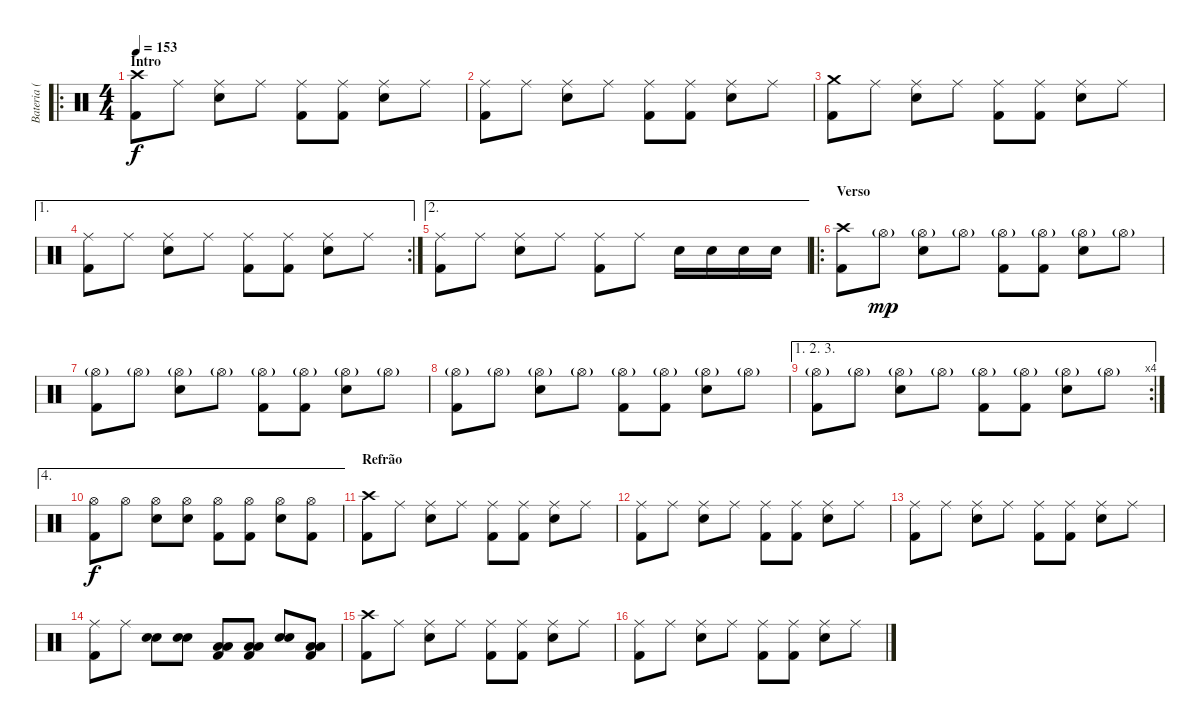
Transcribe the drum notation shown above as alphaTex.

\track ("Bateria ( Marky Ramone)" "Bateria ( ") {instrument percussion}
\staff {score}
\articulation defaults
\ro
\ts (4 4)
\section ("" "Intro")
\tempo 153
\clef neutral
\ks c
("Crash high (hit)" "Kick (hit) 2").8{dy f} "Ride (middle)".8 ("Ride (middle)" "Electric Snare (hit)").8 "Ride (middle)".8 ("Ride (middle)" "Kick (hit) 2").8 ("Ride (middle)" "Kick (hit) 2").8 ("Ride (middle)" "Electric Snare (hit)").8 "Ride (middle)".8 |
("Ride (middle)" "Kick (hit) 2").8 "Ride (middle)".8 ("Ride (middle)" "Electric Snare (hit)").8 "Ride (middle)".8 ("Ride (middle)" "Kick (hit) 2").8 ("Ride (middle)" "Kick (hit) 2").8 ("Ride (middle)" "Electric Snare (hit)").8 "Ride (middle)".8 |
("Crash medium (hit)" "Kick (hit) 2").8 "Ride (middle)".8 ("Ride (middle)" "Electric Snare (hit)").8 "Ride (middle)".8 ("Ride (middle)" "Kick (hit) 2").8 ("Ride (middle)" "Kick (hit) 2").8 ("Ride (middle)" "Electric Snare (hit)").8 "Ride (middle)".8 |
\ae 1
\rc 2
("Ride (middle)" "Kick (hit) 2").8 "Ride (middle)".8 ("Ride (middle)" "Electric Snare (hit)").8 "Ride (middle)".8 ("Ride (middle)" "Kick (hit) 2").8 ("Ride (middle)" "Kick (hit) 2").8 ("Ride (middle)" "Electric Snare (hit)").8 "Ride (middle)".8 |
\ae 2
("Ride (middle)" "Kick (hit) 2").8 "Ride (middle)".8 ("Ride (middle)" "Electric Snare (hit)").8 "Ride (middle)".8 ("Ride (middle)" "Kick (hit) 2").8 "Ride (middle)".8 "Electric Snare (hit)".16 "Electric Snare (hit)".16 "Electric Snare (hit)".16 "Electric Snare (hit)".16 |
\ro
\section ("" "Verso")
("Crash high (hit)" "Kick (hit) 2").8 "Hi-Hat (open)"{g}.8{dy mp} ("Hi-Hat (open)"{g} "Electric Snare (hit)").8 "Hi-Hat (open)"{g}.8 ("Hi-Hat (open)"{g} "Kick (hit) 2").8 ("Hi-Hat (open)"{g} "Kick (hit) 2").8 ("Hi-Hat (open)"{g} "Electric Snare (hit)").8 "Hi-Hat (open)"{g}.8 |
("Hi-Hat (open)"{g} "Kick (hit) 2").8 "Hi-Hat (open)"{g}.8 ("Hi-Hat (open)"{g} "Electric Snare (hit)").8 "Hi-Hat (open)"{g}.8 ("Hi-Hat (open)"{g} "Kick (hit) 2").8 ("Hi-Hat (open)"{g} "Kick (hit) 2").8 ("Hi-Hat (open)"{g} "Electric Snare (hit)").8 "Hi-Hat (open)"{g}.8 |
("Hi-Hat (open)"{g} "Kick (hit) 2").8 "Hi-Hat (open)"{g}.8 ("Hi-Hat (open)"{g} "Electric Snare (hit)").8 "Hi-Hat (open)"{g}.8 ("Hi-Hat (open)"{g} "Kick (hit) 2").8 ("Hi-Hat (open)"{g} "Kick (hit) 2").8 ("Hi-Hat (open)"{g} "Electric Snare (hit)").8 "Hi-Hat (open)"{g}.8 |
\ae (1 2 3)
\rc 4
("Hi-Hat (open)"{g} "Kick (hit) 2").8 "Hi-Hat (open)"{g}.8 ("Hi-Hat (open)"{g} "Electric Snare (hit)").8 "Hi-Hat (open)"{g}.8 ("Hi-Hat (open)"{g} "Kick (hit) 2").8 ("Hi-Hat (open)"{g} "Kick (hit) 2").8 ("Hi-Hat (open)"{g} "Electric Snare (hit)").8 "Hi-Hat (open)"{g}.8 |
\ae 4
("Hi-Hat (open)" "Kick (hit) 2").8{dy f} "Hi-Hat (open)".8 ("Hi-Hat (open)" "Electric Snare (hit)").8 ("Hi-Hat (open)" "Electric Snare (hit)").8 ("Hi-Hat (open)" "Kick (hit) 2").8 ("Hi-Hat (open)" "Kick (hit) 2").8 ("Hi-Hat (open)" "Electric Snare (hit)").8 ("Hi-Hat (open)" "Kick (hit) 2").8 |
\section ("" "Refrão")
("Crash high (hit)" "Kick (hit) 2").8 "Ride (middle)".8 ("Ride (middle)" "Electric Snare (hit)").8 "Ride (middle)".8 ("Ride (middle)" "Kick (hit) 2").8 ("Ride (middle)" "Kick (hit) 2").8 ("Ride (middle)" "Electric Snare (hit)").8 "Ride (middle)".8 |
("Ride (middle)" "Kick (hit) 2").8 "Ride (middle)".8 ("Ride (middle)" "Electric Snare (hit)").8 "Ride (middle)".8 ("Ride (middle)" "Kick (hit) 2").8 ("Ride (middle)" "Kick (hit) 2").8 ("Ride (middle)" "Electric Snare (hit)").8 "Ride (middle)".8 |
("Ride (middle)" "Kick (hit) 2").8 "Ride (middle)".8 ("Ride (middle)" "Electric Snare (hit)").8 "Ride (middle)".8 ("Ride (middle)" "Kick (hit) 2").8 ("Ride (middle)" "Kick (hit) 2").8 ("Ride (middle)" "Electric Snare (hit)").8 "Ride (middle)".8 |
("Ride (middle)" "Kick (hit) 2").8 "Ride (middle)".8 ("Electric Snare (hit)" "Electric Snare (hit)").8 ("Electric Snare (hit)" "Electric Snare (hit)").8 ("Low Tom (hit)" "Low Tom (hit)" "Kick (hit) 2").8 ("Low Tom (hit)" "Low Tom (hit)" "Kick (hit) 2").8 ("Electric Snare (hit)" "Electric Snare (hit)").8 ("Low Tom (hit)" "Low Tom (hit)" "Kick (hit) 2").8 |
("Crash high (hit)" "Kick (hit) 2").8 "Ride (middle)".8 ("Ride (middle)" "Electric Snare (hit)").8 "Ride (middle)".8 ("Ride (middle)" "Kick (hit) 2").8 ("Ride (middle)" "Kick (hit) 2").8 ("Ride (middle)" "Electric Snare (hit)").8 "Ride (middle)".8 |
("Ride (middle)" "Kick (hit) 2").8 "Ride (middle)".8 ("Ride (middle)" "Electric Snare (hit)").8 "Ride (middle)".8 ("Ride (middle)" "Kick (hit) 2").8 ("Ride (middle)" "Kick (hit) 2").8 ("Ride (middle)" "Electric Snare (hit)").8 "Ride (middle)".8
